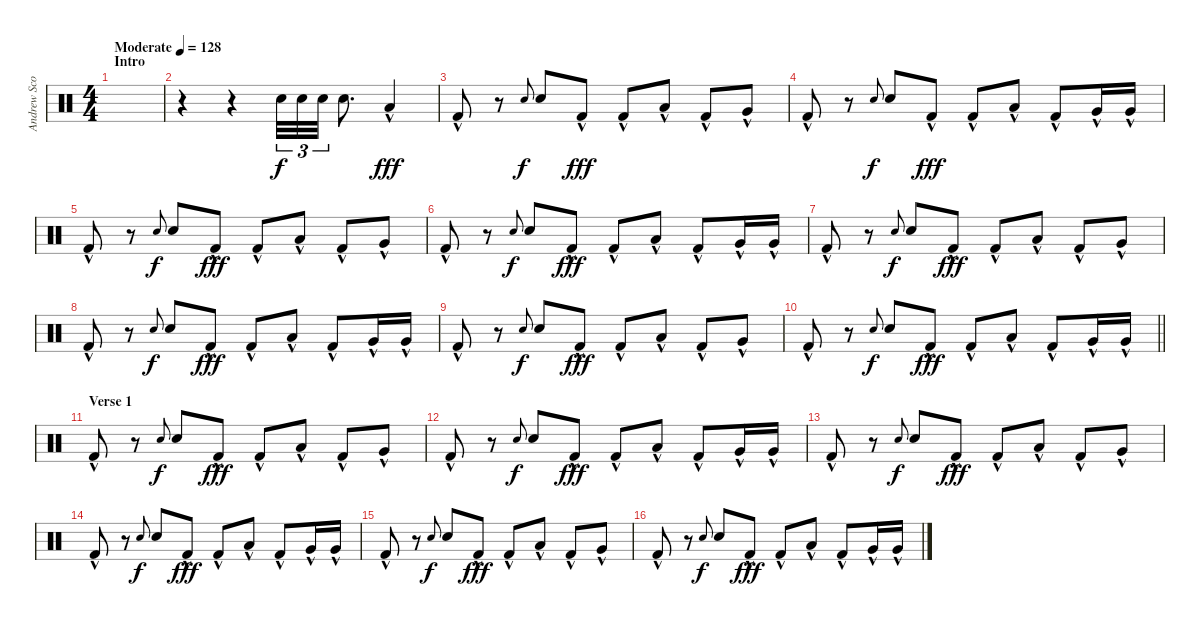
\track ("Andrew Scott" "Andrew Sco") {instrument percussion}
\staff {score}
\articulation defaults
\ts (4 4)
\section ("" "Intro")
\tempo (128 "Moderate")
\clef neutral
\ks c
|
r.4 r.4 "Snare (hit) 2".32{tu (3 2)} "Snare (hit) 2".32{tu (3 2)} "Snare (hit) 2".32{tu (3 2)} "Snare (hit) 2".8{d} "Low Tom (hit)"{hac}.4{dy fff} |
"Kick (hit) 2"{hac}.8 r.8 "Snare (hit) 2".8{gr onbeat dy f} "Snare (hit) 2".8 "Kick (hit) 2"{hac}.8{dy fff} "Kick (hit) 2"{hac}.8 "Low Tom (hit)"{hac}.8 "Kick (hit) 2"{hac}.8 "Very Low Tom (hit)"{hac}.8 |
"Kick (hit) 2"{hac}.8 r.8 "Snare (hit) 2".8{gr onbeat dy f} "Snare (hit) 2".8 "Kick (hit) 2"{hac}.8{dy fff} "Kick (hit) 2"{hac}.8 "Low Tom (hit)"{hac}.8 "Kick (hit) 2"{hac}.8 "Very Low Tom (hit)"{hac}.16 "Very Low Tom (hit)"{hac}.16 |
"Kick (hit) 2"{hac}.8 r.8 "Snare (hit) 2".8{gr onbeat dy f} "Snare (hit) 2".8 "Kick (hit) 2"{hac}.8{dy fff} "Kick (hit) 2"{hac}.8 "Low Tom (hit)"{hac}.8 "Kick (hit) 2"{hac}.8 "Very Low Tom (hit)"{hac}.8 |
"Kick (hit) 2"{hac}.8 r.8 "Snare (hit) 2".8{gr onbeat dy f} "Snare (hit) 2".8 "Kick (hit) 2"{hac}.8{dy fff} "Kick (hit) 2"{hac}.8 "Low Tom (hit)"{hac}.8 "Kick (hit) 2"{hac}.8 "Very Low Tom (hit)"{hac}.16 "Very Low Tom (hit)"{hac}.16 |
"Kick (hit) 2"{hac}.8 r.8 "Snare (hit) 2".8{gr onbeat dy f} "Snare (hit) 2".8 "Kick (hit) 2"{hac}.8{dy fff} "Kick (hit) 2"{hac}.8 "Low Tom (hit)"{hac}.8 "Kick (hit) 2"{hac}.8 "Very Low Tom (hit)"{hac}.8 |
"Kick (hit) 2"{hac}.8 r.8 "Snare (hit) 2".8{gr onbeat dy f} "Snare (hit) 2".8 "Kick (hit) 2"{hac}.8{dy fff} "Kick (hit) 2"{hac}.8 "Low Tom (hit)"{hac}.8 "Kick (hit) 2"{hac}.8 "Very Low Tom (hit)"{hac}.16 "Very Low Tom (hit)"{hac}.16 |
"Kick (hit) 2"{hac}.8 r.8 "Snare (hit) 2".8{gr onbeat dy f} "Snare (hit) 2".8 "Kick (hit) 2"{hac}.8{dy fff} "Kick (hit) 2"{hac}.8 "Low Tom (hit)"{hac}.8 "Kick (hit) 2"{hac}.8 "Very Low Tom (hit)"{hac}.8 |
\barLineRight lightlight "Kick (hit) 2"{hac}.8
r.8 "Snare (hit) 2".8{gr onbeat dy f} "Snare (hit) 2".8 "Kick (hit) 2"{hac}.8{dy fff} "Kick (hit) 2"{hac}.8 "Low Tom (hit)"{hac}.8 "Kick (hit) 2"{hac}.8 "Very Low Tom (hit)"{hac}.16 "Very Low Tom (hit)"{hac}.16 |
\section ("" "Verse 1")
"Kick (hit) 2"{hac}.8 r.8 "Snare (hit) 2".8{gr onbeat dy f} "Snare (hit) 2".8 "Kick (hit) 2"{hac}.8{dy fff} "Kick (hit) 2"{hac}.8 "Low Tom (hit)"{hac}.8 "Kick (hit) 2"{hac}.8 "Very Low Tom (hit)"{hac}.8 |
"Kick (hit) 2"{hac}.8 r.8 "Snare (hit) 2".8{gr onbeat dy f} "Snare (hit) 2".8 "Kick (hit) 2"{hac}.8{dy fff} "Kick (hit) 2"{hac}.8 "Low Tom (hit)"{hac}.8 "Kick (hit) 2"{hac}.8 "Very Low Tom (hit)"{hac}.16 "Very Low Tom (hit)"{hac}.16 |
"Kick (hit) 2"{hac}.8 r.8 "Snare (hit) 2".8{gr onbeat dy f} "Snare (hit) 2".8 "Kick (hit) 2"{hac}.8{dy fff} "Kick (hit) 2"{hac}.8 "Low Tom (hit)"{hac}.8 "Kick (hit) 2"{hac}.8 "Very Low Tom (hit)"{hac}.8 |
"Kick (hit) 2"{hac}.8 r.8 "Snare (hit) 2".8{gr onbeat dy f} "Snare (hit) 2".8 "Kick (hit) 2"{hac}.8{dy fff} "Kick (hit) 2"{hac}.8 "Low Tom (hit)"{hac}.8 "Kick (hit) 2"{hac}.8 "Very Low Tom (hit)"{hac}.16 "Very Low Tom (hit)"{hac}.16 |
"Kick (hit) 2"{hac}.8 r.8 "Snare (hit) 2".8{gr onbeat dy f} "Snare (hit) 2".8 "Kick (hit) 2"{hac}.8{dy fff} "Kick (hit) 2"{hac}.8 "Low Tom (hit)"{hac}.8 "Kick (hit) 2"{hac}.8 "Very Low Tom (hit)"{hac}.8 |
"Kick (hit) 2"{hac}.8 r.8 "Snare (hit) 2".8{gr onbeat dy f} "Snare (hit) 2".8 "Kick (hit) 2"{hac}.8{dy fff} "Kick (hit) 2"{hac}.8 "Low Tom (hit)"{hac}.8 "Kick (hit) 2"{hac}.8 "Very Low Tom (hit)"{hac}.16 "Very Low Tom (hit)"{hac}.16
